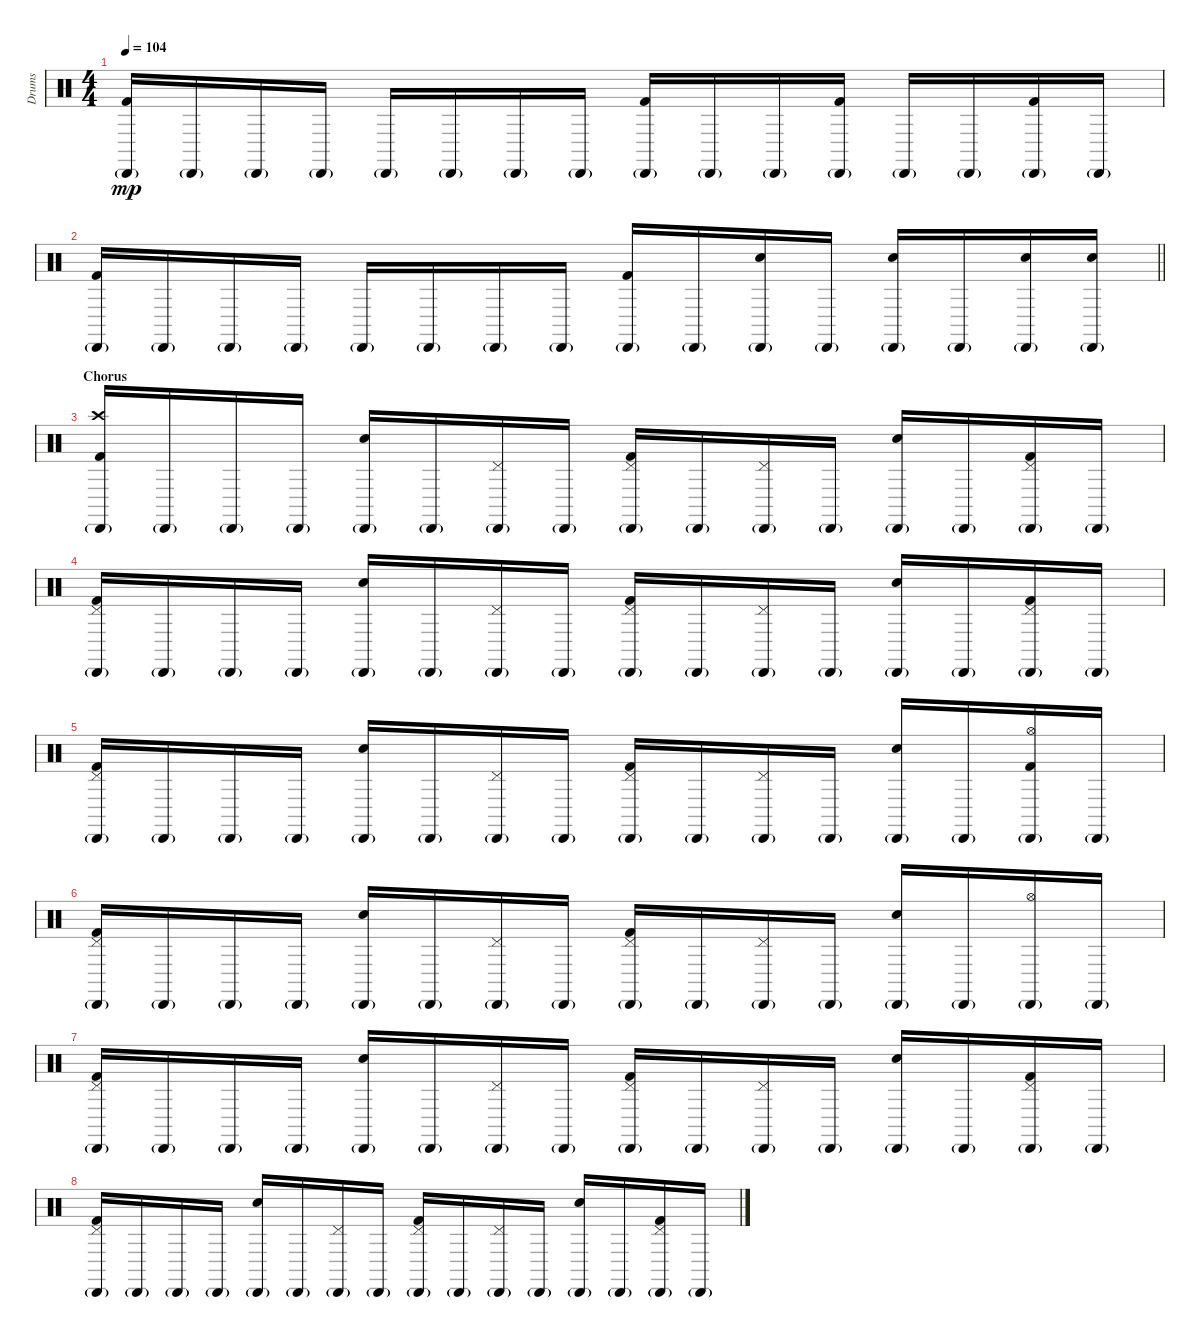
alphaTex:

\track ("Drums" "Drums") {instrument percussion}
\staff {score}
\articulation defaults
\ts (4 4)
\tempo 104
\clef neutral
\ks c
("Cabasa (hit)"{g} "Kick (hit) 2").16{dy mp} "Cabasa (hit)"{g}.16 "Cabasa (hit)"{g}.16 "Cabasa (hit)"{g}.16 "Cabasa (hit)"{g}.16 "Cabasa (hit)"{g}.16 "Cabasa (hit)"{g}.16 "Cabasa (hit)"{g}.16 ("Cabasa (hit)"{g} "Kick (hit) 2").16 "Cabasa (hit)"{g}.16 "Cabasa (hit)"{g}.16 ("Cabasa (hit)"{g} "Kick (hit) 2").16 "Cabasa (hit)"{g}.16 "Cabasa (hit)"{g}.16 ("Cabasa (hit)"{g} "Kick (hit) 2").16 "Cabasa (hit)"{g}.16 |
\barLineRight lightlight
("Cabasa (hit)"{g} "Kick (hit) 2").16 "Cabasa (hit)"{g}.16 "Cabasa (hit)"{g}.16 "Cabasa (hit)"{g}.16 "Cabasa (hit)"{g}.16 "Cabasa (hit)"{g}.16 "Cabasa (hit)"{g}.16 "Cabasa (hit)"{g}.16 ("Cabasa (hit)"{g} "Kick (hit) 2").16 "Cabasa (hit)"{g}.16 ("Snare (hit) 2" "Cabasa (hit)"{g}).16 "Cabasa (hit)"{g}.16 ("Snare (hit) 2" "Cabasa (hit)"{g}).16 "Cabasa (hit)"{g}.16 ("Snare (hit) 2" "Cabasa (hit)"{g}).16 ("Snare (hit) 2" "Cabasa (hit)"{g}).16 |
\section ("" "Chorus")
("Crash high (hit)" "Cabasa (hit)"{g} "Kick (hit) 2").16 "Cabasa (hit)"{g}.16 "Cabasa (hit)"{g}.16 "Cabasa (hit)"{g}.16 ("Snare (hit) 2" "Cabasa (hit)"{g}).16 "Cabasa (hit)"{g}.16 ("Pedal Hi-Hat (hit)" "Cabasa (hit)"{g}).16 "Cabasa (hit)"{g}.16 ("Pedal Hi-Hat (hit)" "Cabasa (hit)"{g} "Kick (hit) 2").16 "Cabasa (hit)"{g}.16 ("Pedal Hi-Hat (hit)" "Cabasa (hit)"{g}).16 "Cabasa (hit)"{g}.16 ("Snare (hit) 2" "Cabasa (hit)"{g}).16 "Cabasa (hit)"{g}.16 ("Pedal Hi-Hat (hit)" "Cabasa (hit)"{g} "Kick (hit) 2").16 "Cabasa (hit)"{g}.16 |
("Pedal Hi-Hat (hit)" "Cabasa (hit)"{g} "Kick (hit) 2").16 "Cabasa (hit)"{g}.16 "Cabasa (hit)"{g}.16 "Cabasa (hit)"{g}.16 ("Snare (hit) 2" "Cabasa (hit)"{g}).16 "Cabasa (hit)"{g}.16 ("Pedal Hi-Hat (hit)" "Cabasa (hit)"{g}).16 "Cabasa (hit)"{g}.16 ("Pedal Hi-Hat (hit)" "Cabasa (hit)"{g} "Kick (hit) 2").16 "Cabasa (hit)"{g}.16 ("Pedal Hi-Hat (hit)" "Cabasa (hit)"{g}).16 "Cabasa (hit)"{g}.16 ("Snare (hit) 2" "Cabasa (hit)"{g}).16 "Cabasa (hit)"{g}.16 ("Pedal Hi-Hat (hit)" "Cabasa (hit)"{g} "Kick (hit) 2").16 "Cabasa (hit)"{g}.16 |
("Pedal Hi-Hat (hit)" "Cabasa (hit)"{g} "Kick (hit) 2").16 "Cabasa (hit)"{g}.16 "Cabasa (hit)"{g}.16 "Cabasa (hit)"{g}.16 ("Snare (hit) 2" "Cabasa (hit)"{g}).16 "Cabasa (hit)"{g}.16 ("Pedal Hi-Hat (hit)" "Cabasa (hit)"{g}).16 "Cabasa (hit)"{g}.16 ("Pedal Hi-Hat (hit)" "Cabasa (hit)"{g} "Kick (hit) 2").16 "Cabasa (hit)"{g}.16 ("Pedal Hi-Hat (hit)" "Cabasa (hit)"{g}).16 "Cabasa (hit)"{g}.16 ("Snare (hit) 2" "Cabasa (hit)"{g}).16 "Cabasa (hit)"{g}.16 ("Hi-Hat (open)" "Cabasa (hit)"{g} "Kick (hit) 2").16 "Cabasa (hit)"{g}.16 |
("Pedal Hi-Hat (hit)" "Cabasa (hit)"{g} "Kick (hit) 2").16 "Cabasa (hit)"{g}.16 "Cabasa (hit)"{g}.16 "Cabasa (hit)"{g}.16 ("Snare (hit) 2" "Cabasa (hit)"{g}).16 "Cabasa (hit)"{g}.16 ("Pedal Hi-Hat (hit)" "Cabasa (hit)"{g}).16 "Cabasa (hit)"{g}.16 ("Pedal Hi-Hat (hit)" "Cabasa (hit)"{g} "Kick (hit) 2").16 "Cabasa (hit)"{g}.16 ("Pedal Hi-Hat (hit)" "Cabasa (hit)"{g}).16 "Cabasa (hit)"{g}.16 ("Snare (hit) 2" "Cabasa (hit)"{g}).16 "Cabasa (hit)"{g}.16 ("Hi-Hat (open)" "Cabasa (hit)"{g}).16 "Cabasa (hit)"{g}.16 |
("Pedal Hi-Hat (hit)" "Cabasa (hit)"{g} "Kick (hit) 2").16 "Cabasa (hit)"{g}.16 "Cabasa (hit)"{g}.16 "Cabasa (hit)"{g}.16 ("Snare (hit) 2" "Cabasa (hit)"{g}).16 "Cabasa (hit)"{g}.16 ("Pedal Hi-Hat (hit)" "Cabasa (hit)"{g}).16 "Cabasa (hit)"{g}.16 ("Pedal Hi-Hat (hit)" "Cabasa (hit)"{g} "Kick (hit) 2").16 "Cabasa (hit)"{g}.16 ("Pedal Hi-Hat (hit)" "Cabasa (hit)"{g}).16 "Cabasa (hit)"{g}.16 ("Snare (hit) 2" "Cabasa (hit)"{g}).16 "Cabasa (hit)"{g}.16 ("Pedal Hi-Hat (hit)" "Cabasa (hit)"{g} "Kick (hit) 2").16 "Cabasa (hit)"{g}.16 |
("Pedal Hi-Hat (hit)" "Cabasa (hit)"{g} "Kick (hit) 2").16 "Cabasa (hit)"{g}.16 "Cabasa (hit)"{g}.16 "Cabasa (hit)"{g}.16 ("Snare (hit) 2" "Cabasa (hit)"{g}).16 "Cabasa (hit)"{g}.16 ("Pedal Hi-Hat (hit)" "Cabasa (hit)"{g}).16 "Cabasa (hit)"{g}.16 ("Pedal Hi-Hat (hit)" "Cabasa (hit)"{g} "Kick (hit) 2").16 "Cabasa (hit)"{g}.16 ("Pedal Hi-Hat (hit)" "Cabasa (hit)"{g}).16 "Cabasa (hit)"{g}.16 ("Snare (hit) 2" "Cabasa (hit)"{g}).16 "Cabasa (hit)"{g}.16 ("Pedal Hi-Hat (hit)" "Cabasa (hit)"{g} "Kick (hit) 2").16 "Cabasa (hit)"{g}.16
